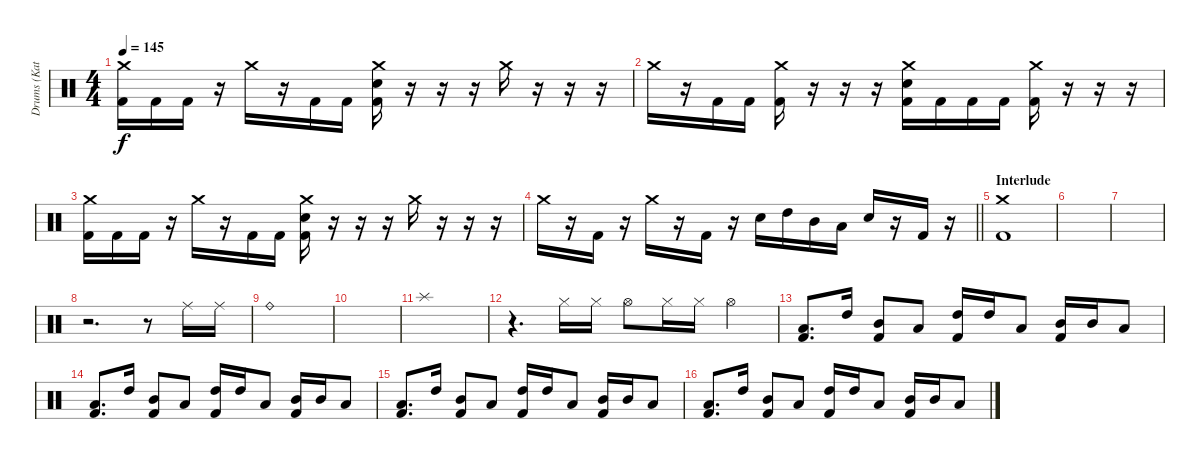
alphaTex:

\track ("Drums (Katsuma)" "Drums (Kat") {instrument percussion}
\staff {score}
\articulation defaults
\ts (4 4)
\tempo 145
\clef neutral
\ks c
("Crash medium (hit)" "Kick (hit) 2").16{dy f} "Kick (hit) 2".16 "Kick (hit) 2".16 r.16 "Crash medium (hit)".16 r.16 "Kick (hit) 2".16 "Kick (hit) 2".16 ("Crash medium (hit)" "Electric Snare (hit)" "Kick (hit) 2").16 r.16 r.16 r.16 "Crash medium (hit)".16 r.16 r.16 r.16 |
"Crash medium (hit)".16 r.16 "Kick (hit) 2".16 "Kick (hit) 2".16 ("Crash medium (hit)" "Kick (hit) 2").16 r.16 r.16 r.16 ("Crash medium (hit)" "Electric Snare (hit)" "Kick (hit) 2").16 "Kick (hit) 2".16 "Kick (hit) 2".16 "Kick (hit) 2".16 ("Crash medium (hit)" "Kick (hit) 2").16 r.16 r.16 r.16 |
("Crash medium (hit)" "Kick (hit) 2").16 "Kick (hit) 2".16 "Kick (hit) 2".16 r.16 "Crash medium (hit)".16 r.16 "Kick (hit) 2".16 "Kick (hit) 2".16 ("Crash medium (hit)" "Electric Snare (hit)" "Kick (hit) 2").16 r.16 r.16 r.16 "Crash medium (hit)".16 r.16 r.16 r.16 |
\barLineRight lightlight "Crash medium (hit)".16
r.16 "Kick (hit) 2".16 r.16 "Crash medium (hit)".16 r.16 "Kick (hit) 2".16 r.16 "Electric Snare (hit)".16 "High Tom (hit)".16 "Mid Tom (hit)".16 "Low Tom (hit)".16 "Electric Snare (hit)".16 r.16 "Kick (hit) 2".16 r.16 |
\section ("" "Interlude")
("Crash medium (hit)" "Kick (hit) 2").1 |
|
|
r.2{d} r.8 "Ride (middle)".16 "Ride (middle)".16 |
"Ride (bell)".1 |
|
"Splash (hit)".1 |
r.4{d} "Hi-Hat (closed)".16 "Hi-Hat (closed)".16 "Hi-Hat (open)".8 "Hi-Hat (closed)".16 "Hi-Hat (closed)".16 "Hi-Hat (open)".4 |
("Low Tom (hit)" "Kick (hit) 2").8{d} "High Tom (hit)".16 ("Mid Tom (hit)" "Kick (hit) 2").8 "Low Tom (hit)".8 ("High Tom (hit)" "Kick (hit) 2").16 "High Tom (hit)".16 "Low Tom (hit)".8 ("Mid Tom (hit)" "Kick (hit) 2").16 "Mid Tom (hit)".16 "Low Tom (hit)".8 |
("Low Tom (hit)" "Kick (hit) 2").8{d} "High Tom (hit)".16 ("Mid Tom (hit)" "Kick (hit) 2").8 "Low Tom (hit)".8 ("High Tom (hit)" "Kick (hit) 2").16 "High Tom (hit)".16 "Low Tom (hit)".8 ("Mid Tom (hit)" "Kick (hit) 2").16 "Mid Tom (hit)".16 "Low Tom (hit)".8 |
("Low Tom (hit)" "Kick (hit) 2").8{d} "High Tom (hit)".16 ("Mid Tom (hit)" "Kick (hit) 2").8 "Low Tom (hit)".8 ("High Tom (hit)" "Kick (hit) 2").16 "High Tom (hit)".16 "Low Tom (hit)".8 ("Mid Tom (hit)" "Kick (hit) 2").16 "Mid Tom (hit)".16 "Low Tom (hit)".8 |
("Low Tom (hit)" "Kick (hit) 2").8{d} "High Tom (hit)".16 ("Mid Tom (hit)" "Kick (hit) 2").8 "Low Tom (hit)".8 ("High Tom (hit)" "Kick (hit) 2").16 "High Tom (hit)".16 "Low Tom (hit)".8 ("Mid Tom (hit)" "Kick (hit) 2").16 "Mid Tom (hit)".16 "Low Tom (hit)".8
